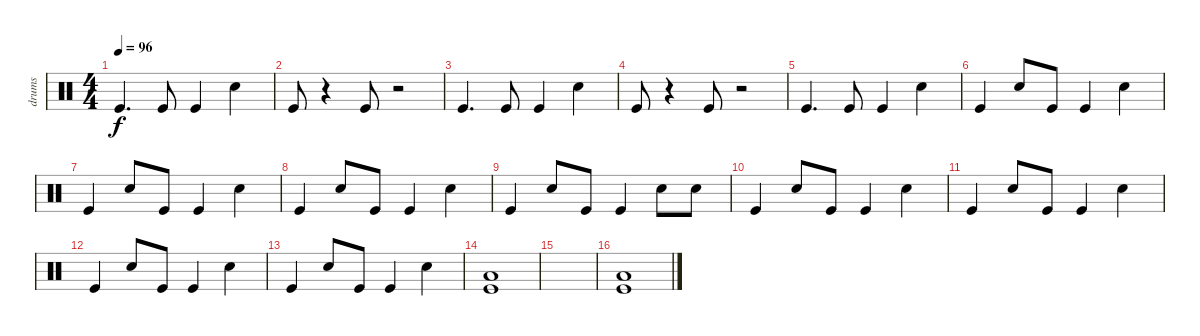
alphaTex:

\track ("drums" "drums") {instrument percussion}
\staff {score}
\articulation defaults
\ts (4 4)
\tempo 96
\clef neutral
\ks c "Kick (hit)".4{d dy f} "Kick (hit)".8 "Kick (hit)".4 "Snare (hit) 2".4
|
"Kick (hit)".8 r.4 "Kick (hit)".8 r.2 |
"Kick (hit)".4{d} "Kick (hit)".8 "Kick (hit)".4 "Snare (hit) 2".4 |
"Kick (hit)".8 r.4 "Kick (hit)".8 r.2 |
"Kick (hit)".4{d} "Kick (hit)".8 "Kick (hit)".4 "Snare (hit) 2".4 |
"Kick (hit)".4 "Snare (hit) 2".8 "Kick (hit)".8 "Kick (hit)".4 "Snare (hit) 2".4 |
"Kick (hit)".4 "Snare (hit) 2".8 "Kick (hit)".8 "Kick (hit)".4 "Snare (hit) 2".4 |
"Kick (hit)".4 "Snare (hit) 2".8 "Kick (hit)".8 "Kick (hit)".4 "Snare (hit) 2".4 |
"Kick (hit)".4 "Snare (hit) 2".8 "Kick (hit)".8 "Kick (hit)".4 "Snare (hit) 2".8 "Snare (hit) 2".8 |
"Kick (hit)".4 "Snare (hit) 2".8 "Kick (hit)".8 "Kick (hit)".4 "Snare (hit) 2".4 |
"Kick (hit)".4 "Snare (hit) 2".8 "Kick (hit)".8 "Kick (hit)".4 "Snare (hit) 2".4 |
"Kick (hit)".4 "Snare (hit) 2".8 "Kick (hit)".8 "Kick (hit)".4 "Snare (hit) 2".4 |
"Kick (hit)".4 "Snare (hit) 2".8 "Kick (hit)".8 "Kick (hit)".4 "Snare (hit) 2".4 |
("Kick (hit)" "Low Floor Tom (hit)").1 |
|
("Kick (hit)" "Low Floor Tom (hit)").1
